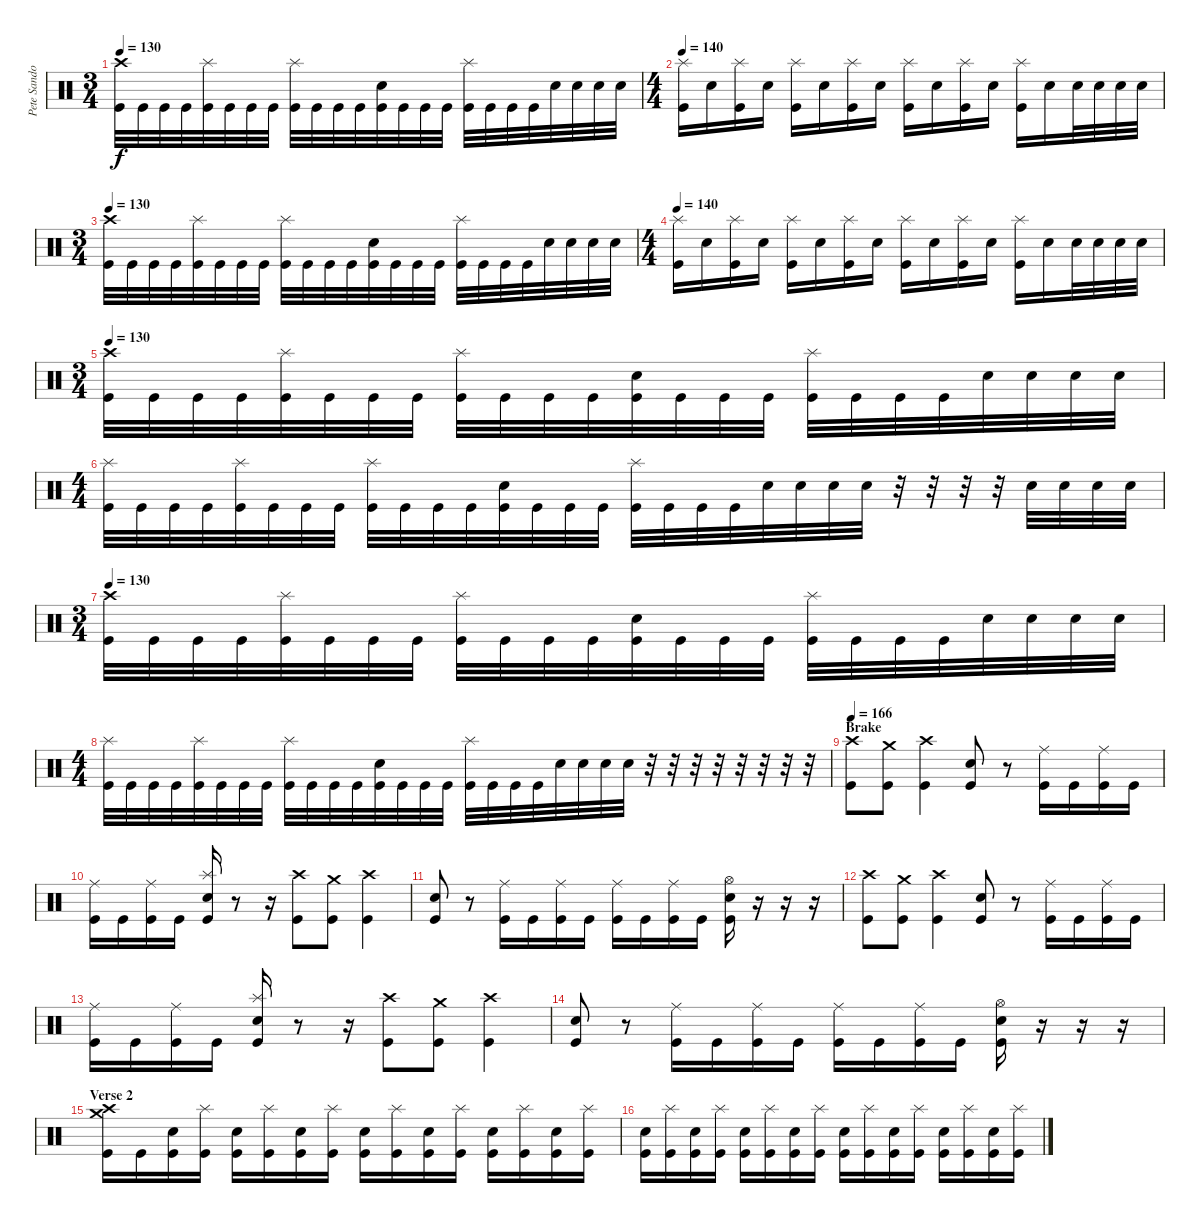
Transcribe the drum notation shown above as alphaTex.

\track ("Pete Sandoval" "Pete Sando") {instrument percussion}
\staff {score}
\articulation defaults
\ts (3 4)
\tempo 130
\clef neutral
\ks c
("Crash high (hit)" "Kick (hit)").32{dy f} "Kick (hit)".32 "Kick (hit)".32 "Kick (hit)".32 ("Splash (hit)" "Kick (hit)").32 "Kick (hit)".32 "Kick (hit)".32 "Kick (hit)".32 ("Splash (hit)" "Kick (hit)").32 "Kick (hit)".32 "Kick (hit)".32 "Kick (hit)".32 ("Electric Snare (hit)" "Kick (hit)").32 "Kick (hit)".32 "Kick (hit)".32 "Kick (hit)".32 ("Splash (hit)" "Kick (hit)").32 "Kick (hit)".32 "Kick (hit)".32 "Kick (hit)".32 "Electric Snare (hit)".32 "Electric Snare (hit)".32 "Electric Snare (hit)".32 "Electric Snare (hit)".32 |
\ts (4 4)
\tempo 140
("Splash (hit)" "Kick (hit)").16 "Electric Snare (hit)".16 ("Splash (hit)" "Kick (hit)").16 "Electric Snare (hit)".16 ("Splash (hit)" "Kick (hit)").16 "Electric Snare (hit)".16 ("Splash (hit)" "Kick (hit)").16 "Electric Snare (hit)".16 ("Splash (hit)" "Kick (hit)").16 "Electric Snare (hit)".16 ("Splash (hit)" "Kick (hit)").16 "Electric Snare (hit)".16 ("Splash (hit)" "Kick (hit)").16 "Electric Snare (hit)".16 "Electric Snare (hit)".32 "Electric Snare (hit)".32 "Electric Snare (hit)".32 "Electric Snare (hit)".32 |
\ts (3 4)
\tempo 130
("Crash high (hit)" "Kick (hit)").32 "Kick (hit)".32 "Kick (hit)".32 "Kick (hit)".32 ("Splash (hit)" "Kick (hit)").32 "Kick (hit)".32 "Kick (hit)".32 "Kick (hit)".32 ("Splash (hit)" "Kick (hit)").32 "Kick (hit)".32 "Kick (hit)".32 "Kick (hit)".32 ("Electric Snare (hit)" "Kick (hit)").32 "Kick (hit)".32 "Kick (hit)".32 "Kick (hit)".32 ("Splash (hit)" "Kick (hit)").32 "Kick (hit)".32 "Kick (hit)".32 "Kick (hit)".32 "Electric Snare (hit)".32 "Electric Snare (hit)".32 "Electric Snare (hit)".32 "Electric Snare (hit)".32 |
\ts (4 4)
\tempo 140
("Splash (hit)" "Kick (hit)").16 "Electric Snare (hit)".16 ("Splash (hit)" "Kick (hit)").16 "Electric Snare (hit)".16 ("Splash (hit)" "Kick (hit)").16 "Electric Snare (hit)".16 ("Splash (hit)" "Kick (hit)").16 "Electric Snare (hit)".16 ("Splash (hit)" "Kick (hit)").16 "Electric Snare (hit)".16 ("Splash (hit)" "Kick (hit)").16 "Electric Snare (hit)".16 ("Splash (hit)" "Kick (hit)").16 "Electric Snare (hit)".16 "Electric Snare (hit)".32 "Electric Snare (hit)".32 "Electric Snare (hit)".32 "Electric Snare (hit)".32 |
\ts (3 4)
\tempo 130
("Crash high (hit)" "Kick (hit)").32 "Kick (hit)".32 "Kick (hit)".32 "Kick (hit)".32 ("Splash (hit)" "Kick (hit)").32 "Kick (hit)".32 "Kick (hit)".32 "Kick (hit)".32 ("Splash (hit)" "Kick (hit)").32 "Kick (hit)".32 "Kick (hit)".32 "Kick (hit)".32 ("Electric Snare (hit)" "Kick (hit)").32 "Kick (hit)".32 "Kick (hit)".32 "Kick (hit)".32 ("Splash (hit)" "Kick (hit)").32 "Kick (hit)".32 "Kick (hit)".32 "Kick (hit)".32 "Electric Snare (hit)".32 "Electric Snare (hit)".32 "Electric Snare (hit)".32 "Electric Snare (hit)".32 |
\ts (4 4)
("Splash (hit)" "Kick (hit)").32 "Kick (hit)".32 "Kick (hit)".32 "Kick (hit)".32 ("Splash (hit)" "Kick (hit)").32 "Kick (hit)".32 "Kick (hit)".32 "Kick (hit)".32 ("Splash (hit)" "Kick (hit)").32 "Kick (hit)".32 "Kick (hit)".32 "Kick (hit)".32 ("Electric Snare (hit)" "Kick (hit)").32 "Kick (hit)".32 "Kick (hit)".32 "Kick (hit)".32 ("Splash (hit)" "Kick (hit)").32 "Kick (hit)".32 "Kick (hit)".32 "Kick (hit)".32 "Electric Snare (hit)".32 "Electric Snare (hit)".32 "Electric Snare (hit)".32 "Electric Snare (hit)".32 r.32 r.32 r.32 r.32 "Electric Snare (hit)".32 "Electric Snare (hit)".32 "Electric Snare (hit)".32 "Electric Snare (hit)".32 |
\ts (3 4)
\tempo 130
("Crash high (hit)" "Kick (hit)").32 "Kick (hit)".32 "Kick (hit)".32 "Kick (hit)".32 ("Splash (hit)" "Kick (hit)").32 "Kick (hit)".32 "Kick (hit)".32 "Kick (hit)".32 ("Splash (hit)" "Kick (hit)").32 "Kick (hit)".32 "Kick (hit)".32 "Kick (hit)".32 ("Electric Snare (hit)" "Kick (hit)").32 "Kick (hit)".32 "Kick (hit)".32 "Kick (hit)".32 ("Splash (hit)" "Kick (hit)").32 "Kick (hit)".32 "Kick (hit)".32 "Kick (hit)".32 "Electric Snare (hit)".32 "Electric Snare (hit)".32 "Electric Snare (hit)".32 "Electric Snare (hit)".32 |
\ts (4 4)
("Splash (hit)" "Kick (hit)").32 "Kick (hit)".32 "Kick (hit)".32 "Kick (hit)".32 ("Splash (hit)" "Kick (hit)").32 "Kick (hit)".32 "Kick (hit)".32 "Kick (hit)".32 ("Splash (hit)" "Kick (hit)").32 "Kick (hit)".32 "Kick (hit)".32 "Kick (hit)".32 ("Electric Snare (hit)" "Kick (hit)").32 "Kick (hit)".32 "Kick (hit)".32 "Kick (hit)".32 ("Splash (hit)" "Kick (hit)").32 "Kick (hit)".32 "Kick (hit)".32 "Kick (hit)".32 "Electric Snare (hit)".32 "Electric Snare (hit)".32 "Electric Snare (hit)".32 "Electric Snare (hit)".32 r.32 r.32 r.32 r.32 r.32 r.32 r.32 r.32 |
\section ("" "Brake")
\tempo 166
("Crash high (hit)" "Kick (hit)").8 ("Crash medium (hit)" "Kick (hit)").8 ("Crash high (hit)" "Kick (hit)").4 ("Electric Snare (hit)" "Kick (hit)").8 r.8 ("Ride (middle)" "Kick (hit)").16 "Kick (hit)".16 ("Ride (middle)" "Kick (hit)").16 "Kick (hit)".16 |
("Ride (middle)" "Kick (hit)").16 "Kick (hit)".16 ("Ride (middle)" "Kick (hit)").16 "Kick (hit)".16 ("Electric Snare (hit)" "Splash (hit)" "Kick (hit)").16 r.8 r.16 ("Crash high (hit)" "Kick (hit)").8 ("Crash medium (hit)" "Kick (hit)").8 ("Crash high (hit)" "Kick (hit)").4 |
("Electric Snare (hit)" "Kick (hit)").8 r.8 ("Ride (middle)" "Kick (hit)").16 "Kick (hit)".16 ("Ride (middle)" "Kick (hit)").16 "Kick (hit)".16 ("Ride (middle)" "Kick (hit)").16 "Kick (hit)".16 ("Ride (middle)" "Kick (hit)").16 "Kick (hit)".16 ("Electric Snare (hit)" "Hi-Hat (open)" "Kick (hit)").16 r.16 r.16 r.16 |
("Crash high (hit)" "Kick (hit)").8 ("Crash medium (hit)" "Kick (hit)").8 ("Crash high (hit)" "Kick (hit)").4 ("Electric Snare (hit)" "Kick (hit)").8 r.8 ("Ride (middle)" "Kick (hit)").16 "Kick (hit)".16 ("Ride (middle)" "Kick (hit)").16 "Kick (hit)".16 |
("Ride (middle)" "Kick (hit)").16 "Kick (hit)".16 ("Ride (middle)" "Kick (hit)").16 "Kick (hit)".16 ("Electric Snare (hit)" "Splash (hit)" "Kick (hit)").16 r.8 r.16 ("Crash high (hit)" "Kick (hit)").8 ("Crash medium (hit)" "Kick (hit)").8 ("Crash high (hit)" "Kick (hit)").4 |
("Electric Snare (hit)" "Kick (hit)").8 r.8 ("Ride (middle)" "Kick (hit)").16 "Kick (hit)".16 ("Ride (middle)" "Kick (hit)").16 "Kick (hit)".16 ("Ride (middle)" "Kick (hit)").16 "Kick (hit)".16 ("Ride (middle)" "Kick (hit)").16 "Kick (hit)".16 ("Electric Snare (hit)" "Hi-Hat (open)" "Kick (hit)").16 r.16 r.16 r.16 |
\section ("" "Verse 2")
("Crash medium (hit)" "Crash high (hit)" "Kick (hit)").16 "Kick (hit)".16 ("Electric Snare (hit)" "Kick (hit)").16 ("Splash (hit)" "Kick (hit)").16 ("Electric Snare (hit)" "Kick (hit)").16 ("Splash (hit)" "Kick (hit)").16 ("Electric Snare (hit)" "Kick (hit)").16 ("Splash (hit)" "Kick (hit)").16 ("Electric Snare (hit)" "Kick (hit)").16 ("Splash (hit)" "Kick (hit)").16 ("Electric Snare (hit)" "Kick (hit)").16 ("Splash (hit)" "Kick (hit)").16 ("Electric Snare (hit)" "Kick (hit)").16 ("Splash (hit)" "Kick (hit)").16 ("Electric Snare (hit)" "Kick (hit)").16 ("Splash (hit)" "Kick (hit)").16 |
("Electric Snare (hit)" "Kick (hit)").16 ("Splash (hit)" "Kick (hit)").16 ("Electric Snare (hit)" "Kick (hit)").16 ("Splash (hit)" "Kick (hit)").16 ("Electric Snare (hit)" "Kick (hit)").16 ("Splash (hit)" "Kick (hit)").16 ("Electric Snare (hit)" "Kick (hit)").16 ("Splash (hit)" "Kick (hit)").16 ("Electric Snare (hit)" "Kick (hit)").16 ("Splash (hit)" "Kick (hit)").16 ("Electric Snare (hit)" "Kick (hit)").16 ("Splash (hit)" "Kick (hit)").16 ("Electric Snare (hit)" "Kick (hit)").16 ("Splash (hit)" "Kick (hit)").16 ("Electric Snare (hit)" "Kick (hit)").16 ("Splash (hit)" "Kick (hit)").16
